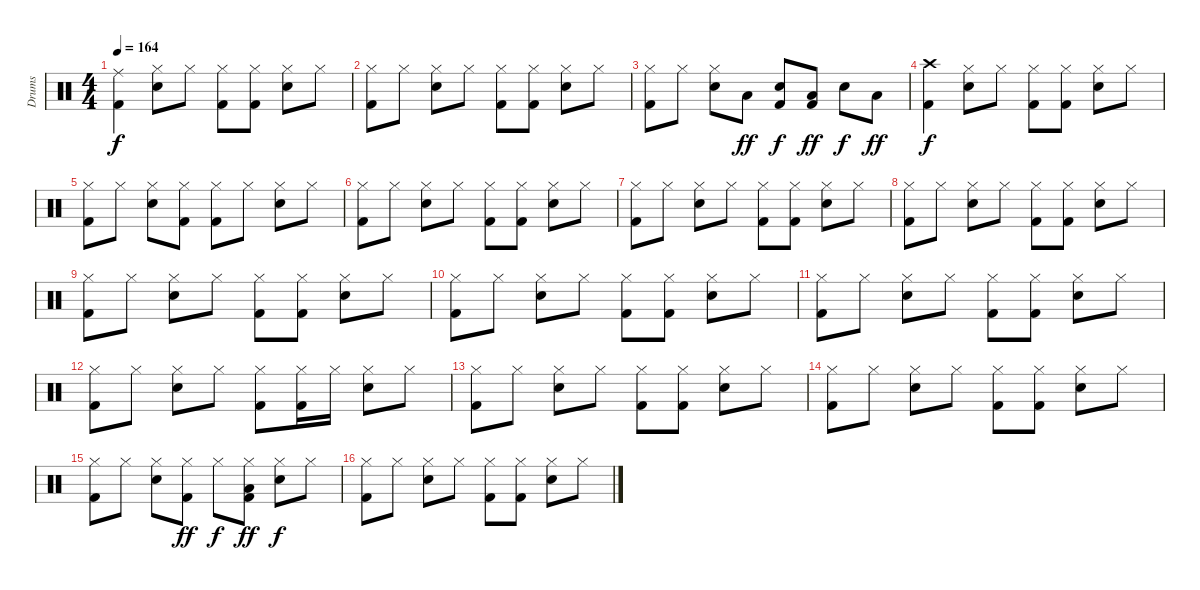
\track ("Drums" "Drums") {instrument percussion}
\staff {score}
\articulation defaults
\ts (4 4)
\tempo 164
\clef neutral
\ks c
("Ride (middle)" "Kick (hit) 2").4{dy f} ("Hi-Hat (closed)" "Snare (hit) 2").8 "Hi-Hat (closed)".8 ("Hi-Hat (closed)" "Kick (hit) 2").8 ("Hi-Hat (closed)" "Kick (hit) 2").8 ("Hi-Hat (closed)" "Snare (hit) 2").8 "Hi-Hat (closed)".8 |
("Hi-Hat (closed)" "Kick (hit) 2").8 "Hi-Hat (closed)".8 ("Hi-Hat (closed)" "Snare (hit) 2").8 "Hi-Hat (closed)".8 ("Hi-Hat (closed)" "Kick (hit) 2").8 ("Hi-Hat (closed)" "Kick (hit) 2").8 ("Hi-Hat (closed)" "Snare (hit) 2").8 "Hi-Hat (closed)".8 |
("Hi-Hat (closed)" "Kick (hit) 2").8 "Hi-Hat (closed)".8 ("Hi-Hat (closed)" "Snare (hit) 2").8 "Low Floor Tom (hit)".8{dy ff} ("Snare (hit) 2" "Kick (hit) 2").8{dy f} ("Low Floor Tom (hit)" "Kick (hit) 2").8{dy ff} "Snare (hit) 2".8{dy f} "Low Floor Tom (hit)".8{dy ff} |
("Crash high (hit)" "Kick (hit) 2").4{dy f} ("Hi-Hat (closed)" "Snare (hit) 2").8 "Hi-Hat (closed)".8 ("Hi-Hat (closed)" "Kick (hit) 2").8 ("Hi-Hat (closed)" "Kick (hit) 2").8 ("Hi-Hat (closed)" "Snare (hit) 2").8 "Hi-Hat (closed)".8 |
("Hi-Hat (closed)" "Kick (hit) 2").8 "Hi-Hat (closed)".8 ("Hi-Hat (closed)" "Snare (hit) 2").8 ("Hi-Hat (closed)" "Kick (hit) 2").8 ("Hi-Hat (closed)" "Kick (hit) 2").8 "Hi-Hat (closed)".8 ("Hi-Hat (closed)" "Snare (hit) 2").8 "Hi-Hat (closed)".8 |
("Hi-Hat (closed)" "Kick (hit) 2").8 "Hi-Hat (closed)".8 ("Hi-Hat (closed)" "Snare (hit) 2").8 "Hi-Hat (closed)".8 ("Hi-Hat (closed)" "Kick (hit) 2").8 ("Hi-Hat (closed)" "Kick (hit) 2").8 ("Hi-Hat (closed)" "Snare (hit) 2").8 "Hi-Hat (closed)".8 |
("Hi-Hat (closed)" "Kick (hit) 2").8 "Hi-Hat (closed)".8 ("Hi-Hat (closed)" "Snare (hit) 2").8 "Hi-Hat (closed)".8 ("Hi-Hat (closed)" "Kick (hit) 2").8 ("Hi-Hat (closed)" "Kick (hit) 2").8 ("Hi-Hat (closed)" "Snare (hit) 2").8 "Hi-Hat (closed)".8 |
("Hi-Hat (closed)" "Kick (hit) 2").8 "Hi-Hat (closed)".8 ("Hi-Hat (closed)" "Snare (hit) 2").8 "Hi-Hat (closed)".8 ("Hi-Hat (closed)" "Kick (hit) 2").8 ("Hi-Hat (closed)" "Kick (hit) 2").8 ("Hi-Hat (closed)" "Snare (hit) 2").8 "Hi-Hat (closed)".8 |
("Hi-Hat (closed)" "Kick (hit) 2").8 "Hi-Hat (closed)".8 ("Hi-Hat (closed)" "Snare (hit) 2").8 "Hi-Hat (closed)".8 ("Hi-Hat (closed)" "Kick (hit) 2").8 ("Hi-Hat (closed)" "Kick (hit) 2").8 ("Hi-Hat (closed)" "Snare (hit) 2").8 "Hi-Hat (closed)".8 |
("Hi-Hat (closed)" "Kick (hit) 2").8 "Hi-Hat (closed)".8 ("Hi-Hat (closed)" "Snare (hit) 2").8 "Hi-Hat (closed)".8 ("Hi-Hat (closed)" "Kick (hit) 2").8 ("Hi-Hat (closed)" "Kick (hit) 2").8 ("Hi-Hat (closed)" "Snare (hit) 2").8 "Hi-Hat (closed)".8 |
("Hi-Hat (closed)" "Kick (hit) 2").8 "Hi-Hat (closed)".8 ("Hi-Hat (closed)" "Snare (hit) 2").8 "Hi-Hat (closed)".8 ("Hi-Hat (closed)" "Kick (hit) 2").8 ("Hi-Hat (closed)" "Kick (hit) 2").8 ("Hi-Hat (closed)" "Snare (hit) 2").8 "Hi-Hat (closed)".8 |
("Hi-Hat (closed)" "Kick (hit) 2").8 "Hi-Hat (closed)".8 ("Hi-Hat (closed)" "Snare (hit) 2").8 "Hi-Hat (closed)".8 ("Hi-Hat (closed)" "Kick (hit) 2").8 ("Hi-Hat (closed)" "Kick (hit) 2").16 "Hi-Hat (closed)".16 ("Hi-Hat (closed)" "Snare (hit) 2").8 "Hi-Hat (closed)".8 |
("Hi-Hat (closed)" "Kick (hit) 2").8 "Hi-Hat (closed)".8 ("Hi-Hat (closed)" "Snare (hit) 2").8 "Hi-Hat (closed)".8 ("Hi-Hat (closed)" "Kick (hit) 2").8 ("Hi-Hat (closed)" "Kick (hit) 2").8 ("Hi-Hat (closed)" "Snare (hit) 2").8 "Hi-Hat (closed)".8 |
("Hi-Hat (closed)" "Kick (hit) 2").8 "Hi-Hat (closed)".8 ("Hi-Hat (closed)" "Snare (hit) 2").8 "Hi-Hat (closed)".8 ("Hi-Hat (closed)" "Kick (hit) 2").8 ("Hi-Hat (closed)" "Kick (hit) 2").8 ("Hi-Hat (closed)" "Snare (hit) 2").8 "Hi-Hat (closed)".8 |
("Hi-Hat (closed)" "Kick (hit) 2").8 "Hi-Hat (closed)".8 ("Hi-Hat (closed)" "Snare (hit) 2").8 ("Hi-Hat (closed)" "Kick (hit) 2").8{dy ff} "Hi-Hat (closed)".8{dy f} ("Hi-Hat (closed)" "Low Floor Tom (hit)" "Kick (hit) 2").8{dy ff} ("Hi-Hat (closed)" "Snare (hit) 2").8{dy f} "Hi-Hat (closed)".8 |
("Hi-Hat (closed)" "Kick (hit) 2").8 "Hi-Hat (closed)".8 ("Hi-Hat (closed)" "Snare (hit) 2").8 "Hi-Hat (closed)".8 ("Hi-Hat (closed)" "Kick (hit) 2").8 ("Hi-Hat (closed)" "Kick (hit) 2").8 ("Hi-Hat (closed)" "Snare (hit) 2").8 "Hi-Hat (closed)".8
